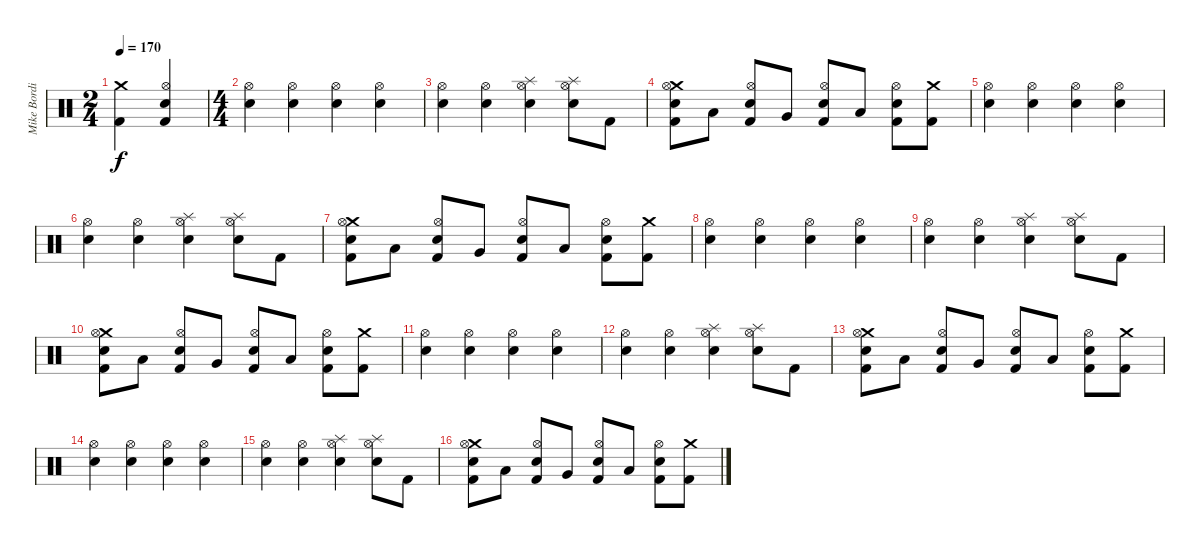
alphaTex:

\track ("Mike Bordin" "Mike Bordi") {instrument percussion}
\staff {score}
\articulation defaults
\ts (2 4)
\tempo 170
\clef neutral
\ks c
("Crash medium (hit)" "Kick (hit) 2").4{dy f} ("Hi-Hat (open)" "Electric Snare (hit)" "Kick (hit) 2").4 |
\ts (4 4)
("Hi-Hat (open)" "Electric Snare (hit)").4 ("Hi-Hat (open)" "Electric Snare (hit)").4 ("Hi-Hat (open)" "Electric Snare (hit)").4 ("Hi-Hat (open)" "Electric Snare (hit)").4 |
("Hi-Hat (open)" "Electric Snare (hit)").4 ("Hi-Hat (open)" "Electric Snare (hit)").4 ("Splash (hit)" "Hi-Hat (open)" "Electric Snare (hit)").4 ("Splash (hit)" "Hi-Hat (open)" "Electric Snare (hit)").8 "Kick (hit) 2".8 |
("Crash medium (hit)" "Hi-Hat (open)" "Electric Snare (hit)" "Kick (hit) 2").8 "Low Floor Tom (hit)".8 ("Hi-Hat (open)" "Electric Snare (hit)" "Kick (hit) 2").8 "Very Low Tom (hit)".8 ("Hi-Hat (open)" "Electric Snare (hit)" "Kick (hit) 2").8 "Low Floor Tom (hit)".8 ("Hi-Hat (open)" "Electric Snare (hit)" "Kick (hit) 2").8 ("Crash medium (hit)" "Kick (hit) 2").8 |
("Hi-Hat (open)" "Electric Snare (hit)").4 ("Hi-Hat (open)" "Electric Snare (hit)").4 ("Hi-Hat (open)" "Electric Snare (hit)").4 ("Hi-Hat (open)" "Electric Snare (hit)").4 |
("Hi-Hat (open)" "Electric Snare (hit)").4 ("Hi-Hat (open)" "Electric Snare (hit)").4 ("Splash (hit)" "Hi-Hat (open)" "Electric Snare (hit)").4 ("Splash (hit)" "Hi-Hat (open)" "Electric Snare (hit)").8 "Kick (hit) 2".8 |
("Crash medium (hit)" "Hi-Hat (open)" "Electric Snare (hit)" "Kick (hit) 2").8 "Low Floor Tom (hit)".8 ("Hi-Hat (open)" "Electric Snare (hit)" "Kick (hit) 2").8 "Very Low Tom (hit)".8 ("Hi-Hat (open)" "Electric Snare (hit)" "Kick (hit) 2").8 "Low Floor Tom (hit)".8 ("Hi-Hat (open)" "Electric Snare (hit)" "Kick (hit) 2").8 ("Crash medium (hit)" "Kick (hit) 2").8 |
("Hi-Hat (open)" "Electric Snare (hit)").4 ("Hi-Hat (open)" "Electric Snare (hit)").4 ("Hi-Hat (open)" "Electric Snare (hit)").4 ("Hi-Hat (open)" "Electric Snare (hit)").4 |
("Hi-Hat (open)" "Electric Snare (hit)").4 ("Hi-Hat (open)" "Electric Snare (hit)").4 ("Splash (hit)" "Hi-Hat (open)" "Electric Snare (hit)").4 ("Splash (hit)" "Hi-Hat (open)" "Electric Snare (hit)").8 "Kick (hit) 2".8 |
("Crash medium (hit)" "Hi-Hat (open)" "Electric Snare (hit)" "Kick (hit) 2").8 "Low Floor Tom (hit)".8 ("Hi-Hat (open)" "Electric Snare (hit)" "Kick (hit) 2").8 "Very Low Tom (hit)".8 ("Hi-Hat (open)" "Electric Snare (hit)" "Kick (hit) 2").8 "Low Floor Tom (hit)".8 ("Hi-Hat (open)" "Electric Snare (hit)" "Kick (hit) 2").8 ("Crash medium (hit)" "Kick (hit) 2").8 |
("Hi-Hat (open)" "Electric Snare (hit)").4 ("Hi-Hat (open)" "Electric Snare (hit)").4 ("Hi-Hat (open)" "Electric Snare (hit)").4 ("Hi-Hat (open)" "Electric Snare (hit)").4 |
("Hi-Hat (open)" "Electric Snare (hit)").4 ("Hi-Hat (open)" "Electric Snare (hit)").4 ("Splash (hit)" "Hi-Hat (open)" "Electric Snare (hit)").4 ("Splash (hit)" "Hi-Hat (open)" "Electric Snare (hit)").8 "Kick (hit) 2".8 |
("Crash medium (hit)" "Hi-Hat (open)" "Electric Snare (hit)" "Kick (hit) 2").8 "Low Floor Tom (hit)".8 ("Hi-Hat (open)" "Electric Snare (hit)" "Kick (hit) 2").8 "Very Low Tom (hit)".8 ("Hi-Hat (open)" "Electric Snare (hit)" "Kick (hit) 2").8 "Low Floor Tom (hit)".8 ("Hi-Hat (open)" "Electric Snare (hit)" "Kick (hit) 2").8 ("Crash medium (hit)" "Kick (hit) 2").8 |
("Hi-Hat (open)" "Electric Snare (hit)").4 ("Hi-Hat (open)" "Electric Snare (hit)").4 ("Hi-Hat (open)" "Electric Snare (hit)").4 ("Hi-Hat (open)" "Electric Snare (hit)").4 |
("Hi-Hat (open)" "Electric Snare (hit)").4 ("Hi-Hat (open)" "Electric Snare (hit)").4 ("Splash (hit)" "Hi-Hat (open)" "Electric Snare (hit)").4 ("Splash (hit)" "Hi-Hat (open)" "Electric Snare (hit)").8 "Kick (hit) 2".8 |
("Crash medium (hit)" "Hi-Hat (open)" "Electric Snare (hit)" "Kick (hit) 2").8 "Low Floor Tom (hit)".8 ("Hi-Hat (open)" "Electric Snare (hit)" "Kick (hit) 2").8 "Very Low Tom (hit)".8 ("Hi-Hat (open)" "Electric Snare (hit)" "Kick (hit) 2").8 "Low Floor Tom (hit)".8 ("Hi-Hat (open)" "Electric Snare (hit)" "Kick (hit) 2").8 ("Crash medium (hit)" "Kick (hit) 2").8
